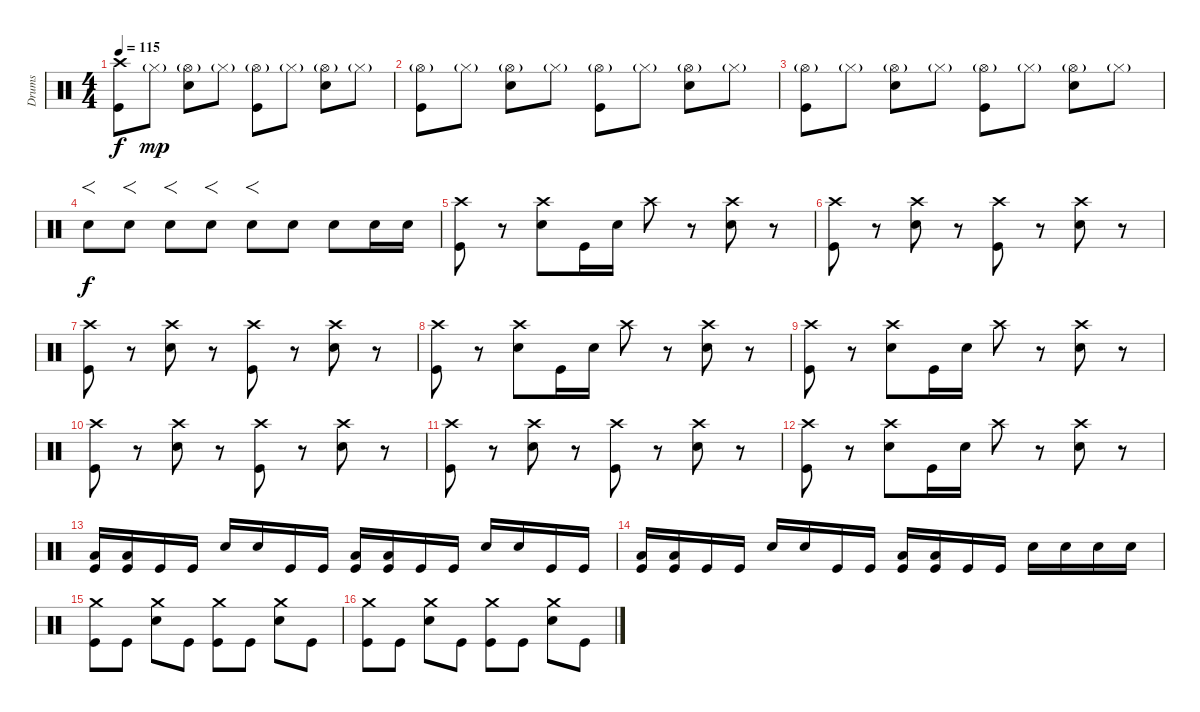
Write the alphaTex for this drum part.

\track ("Drums" "Drums") {instrument percussion}
\staff {score}
\articulation defaults
\ts (4 4)
\tempo 115
\clef neutral
\ks c
("Crash high (hit)" "Kick (hit)").8{dy f} "Hi-Hat (closed)"{g}.8{dy mp} ("Hi-Hat (open)"{g} "Electric Snare (hit)").8 "Hi-Hat (closed)"{g}.8 ("Hi-Hat (open)"{g} "Kick (hit)").8 "Hi-Hat (closed)"{g}.8 ("Hi-Hat (open)"{g} "Electric Snare (hit)").8 "Hi-Hat (closed)"{g}.8 |
("Hi-Hat (open)"{g} "Kick (hit)").8 "Hi-Hat (closed)"{g}.8 ("Hi-Hat (open)"{g} "Electric Snare (hit)").8 "Hi-Hat (closed)"{g}.8 ("Hi-Hat (open)"{g} "Kick (hit)").8 "Hi-Hat (closed)"{g}.8 ("Hi-Hat (open)"{g} "Electric Snare (hit)").8 "Hi-Hat (closed)"{g}.8 |
("Hi-Hat (open)"{g} "Kick (hit)").8 "Hi-Hat (closed)"{g}.8 ("Hi-Hat (open)"{g} "Electric Snare (hit)").8 "Hi-Hat (closed)"{g}.8 ("Hi-Hat (open)"{g} "Kick (hit)").8 "Hi-Hat (closed)"{g}.8 ("Hi-Hat (open)"{g} "Electric Snare (hit)").8 "Hi-Hat (closed)"{g}.8 |
"Electric Snare (hit)".8{f dy f} "Electric Snare (hit)".8{f} "Electric Snare (hit)".8{f} "Electric Snare (hit)".8{f} "Electric Snare (hit)".8{f} "Electric Snare (hit)".8 "Electric Snare (hit)".8 "Electric Snare (hit)".16 "Electric Snare (hit)".16 |
("Crash high (hit)" "Kick (hit)").8 r.8 ("Crash high (hit)" "Electric Snare (hit)").8 "Kick (hit)".16 "Electric Snare (hit)".16 "Crash high (hit)".8 r.8 ("Crash high (hit)" "Electric Snare (hit)").8 r.8 |
("Crash high (hit)" "Kick (hit)").8 r.8 ("Crash high (hit)" "Electric Snare (hit)").8 r.8 ("Crash high (hit)" "Kick (hit)").8 r.8 ("Crash high (hit)" "Electric Snare (hit)").8 r.8 |
("Crash high (hit)" "Kick (hit)").8 r.8 ("Crash high (hit)" "Electric Snare (hit)").8 r.8 ("Crash high (hit)" "Kick (hit)").8 r.8 ("Crash high (hit)" "Electric Snare (hit)").8 r.8 |
("Crash high (hit)" "Kick (hit)").8 r.8 ("Crash high (hit)" "Electric Snare (hit)").8 "Kick (hit)".16 "Electric Snare (hit)".16 "Crash high (hit)".8 r.8 ("Crash high (hit)" "Electric Snare (hit)").8 r.8 |
("Crash high (hit)" "Kick (hit)").8 r.8 ("Crash high (hit)" "Electric Snare (hit)").8 "Kick (hit)".16 "Electric Snare (hit)".16 "Crash high (hit)".8 r.8 ("Crash high (hit)" "Electric Snare (hit)").8 r.8 |
("Crash high (hit)" "Kick (hit)").8 r.8 ("Crash high (hit)" "Electric Snare (hit)").8 r.8 ("Crash high (hit)" "Kick (hit)").8 r.8 ("Crash high (hit)" "Electric Snare (hit)").8 r.8 |
("Crash high (hit)" "Kick (hit)").8 r.8 ("Crash high (hit)" "Electric Snare (hit)").8 r.8 ("Crash high (hit)" "Kick (hit)").8 r.8 ("Crash high (hit)" "Electric Snare (hit)").8 r.8 |
("Crash high (hit)" "Kick (hit)").8 r.8 ("Crash high (hit)" "Electric Snare (hit)").8 "Kick (hit)".16 "Electric Snare (hit)".16 "Crash high (hit)".8 r.8 ("Crash high (hit)" "Electric Snare (hit)").8 r.8 |
("Low Floor Tom (hit)" "Kick (hit)").16 ("Low Floor Tom (hit)" "Kick (hit)").16 "Kick (hit)".16 "Kick (hit)".16 "Electric Snare (hit)".16 "Electric Snare (hit)".16 "Kick (hit)".16 "Kick (hit)".16 ("Low Floor Tom (hit)" "Kick (hit)").16 ("Low Floor Tom (hit)" "Kick (hit)").16 "Kick (hit)".16 "Kick (hit)".16 "Electric Snare (hit)".16 "Electric Snare (hit)".16 "Kick (hit)".16 "Kick (hit)".16 |
("Low Floor Tom (hit)" "Kick (hit)").16 ("Low Floor Tom (hit)" "Kick (hit)").16 "Kick (hit)".16 "Kick (hit)".16 "Electric Snare (hit)".16 "Electric Snare (hit)".16 "Kick (hit)".16 "Kick (hit)".16 ("Low Floor Tom (hit)" "Kick (hit)").16 ("Low Floor Tom (hit)" "Kick (hit)").16 "Kick (hit)".16 "Kick (hit)".16 "Electric Snare (hit)".16 "Electric Snare (hit)".16 "Electric Snare (hit)".16 "Electric Snare (hit)".16 |
("Crash medium (hit)" "Kick (hit)").8 "Kick (hit)".8 ("Crash medium (hit)" "Electric Snare (hit)").8 "Kick (hit)".8 ("Crash medium (hit)" "Kick (hit)").8 "Kick (hit)".8 ("Crash medium (hit)" "Electric Snare (hit)").8 "Kick (hit)".8 |
("Crash medium (hit)" "Kick (hit)").8 "Kick (hit)".8 ("Crash medium (hit)" "Electric Snare (hit)").8 "Kick (hit)".8 ("Crash medium (hit)" "Kick (hit)").8 "Kick (hit)".8 ("Crash medium (hit)" "Electric Snare (hit)").8 "Kick (hit)".8
